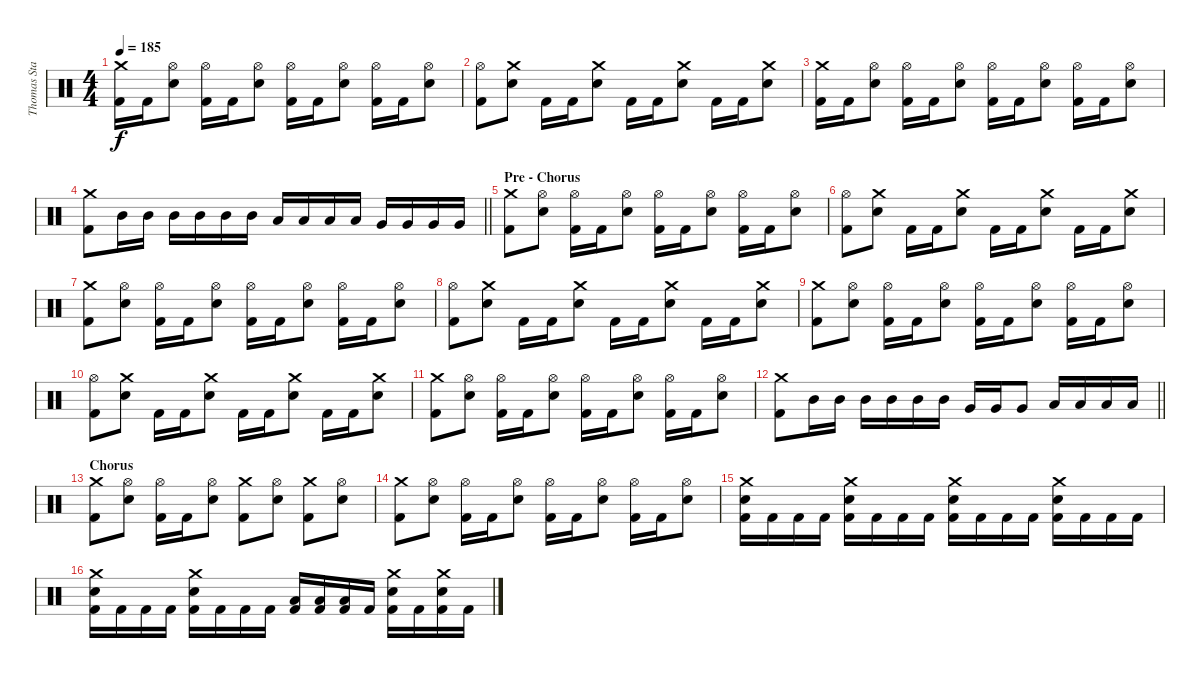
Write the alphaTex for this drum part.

\track ("Thomas Stauch" "Thomas Sta") {instrument percussion}
\staff {score}
\articulation defaults
\ts (4 4)
\tempo 185
\clef neutral
\ks c
("Crash medium (hit)" "Kick (hit) 2").16{dy f} "Kick (hit) 2".16 ("Hi-Hat (open)" "Electric Snare (hit)").8 ("Hi-Hat (open)" "Kick (hit) 2").16 "Kick (hit) 2".16 ("Hi-Hat (open)" "Electric Snare (hit)").8 ("Hi-Hat (open)" "Kick (hit) 2").16 "Kick (hit) 2".16 ("Hi-Hat (open)" "Electric Snare (hit)").8 ("Hi-Hat (open)" "Kick (hit) 2").16 "Kick (hit) 2".16 ("Hi-Hat (open)" "Electric Snare (hit)").8 |
("Hi-Hat (open)" "Kick (hit) 2").8 ("Crash medium (hit)" "Electric Snare (hit)").8 "Kick (hit) 2".16 "Kick (hit) 2".16 ("Crash medium (hit)" "Electric Snare (hit)").8 "Kick (hit) 2".16 "Kick (hit) 2".16 ("Crash medium (hit)" "Electric Snare (hit)").8 "Kick (hit) 2".16 "Kick (hit) 2".16 ("Crash medium (hit)" "Electric Snare (hit)").8 |
("Crash medium (hit)" "Kick (hit) 2").16 "Kick (hit) 2".16 ("Hi-Hat (open)" "Electric Snare (hit)").8 ("Hi-Hat (open)" "Kick (hit) 2").16 "Kick (hit) 2".16 ("Hi-Hat (open)" "Electric Snare (hit)").8 ("Hi-Hat (open)" "Kick (hit) 2").16 "Kick (hit) 2".16 ("Hi-Hat (open)" "Electric Snare (hit)").8 ("Hi-Hat (open)" "Kick (hit) 2").16 "Kick (hit) 2".16 ("Hi-Hat (open)" "Electric Snare (hit)").8 |
\barLineRight lightlight
("Crash medium (hit)" "Kick (hit) 2").8 "Mid Tom (hit)".16 "Mid Tom (hit)".16 "Mid Tom (hit)".16 "Mid Tom (hit)".16 "Mid Tom (hit)".16 "Mid Tom (hit)".16 "Low Tom (hit)".16 "Low Tom (hit)".16 "Low Tom (hit)".16 "Low Tom (hit)".16 "Very Low Tom (hit)".16 "Very Low Tom (hit)".16 "Very Low Tom (hit)".16 "Very Low Tom (hit)".16 |
\section ("" "Pre - Chorus")
("Crash medium (hit)" "Kick (hit) 2").8 ("Hi-Hat (open)" "Electric Snare (hit)").8 ("Hi-Hat (open)" "Kick (hit) 2").16 "Kick (hit) 2".16 ("Hi-Hat (open)" "Electric Snare (hit)").8 ("Hi-Hat (open)" "Kick (hit) 2").16 "Kick (hit) 2".16 ("Hi-Hat (open)" "Electric Snare (hit)").8 ("Hi-Hat (open)" "Kick (hit) 2").16 "Kick (hit) 2".16 ("Hi-Hat (open)" "Electric Snare (hit)").8 |
("Hi-Hat (open)" "Kick (hit) 2").8 ("Crash medium (hit)" "Electric Snare (hit)").8 "Kick (hit) 2".16 "Kick (hit) 2".16 ("Crash medium (hit)" "Electric Snare (hit)").8 "Kick (hit) 2".16 "Kick (hit) 2".16 ("Crash medium (hit)" "Electric Snare (hit)").8 "Kick (hit) 2".16 "Kick (hit) 2".16 ("Crash medium (hit)" "Electric Snare (hit)").8 |
("Crash medium (hit)" "Kick (hit) 2").8 ("Hi-Hat (open)" "Electric Snare (hit)").8 ("Hi-Hat (open)" "Kick (hit) 2").16 "Kick (hit) 2".16 ("Hi-Hat (open)" "Electric Snare (hit)").8 ("Hi-Hat (open)" "Kick (hit) 2").16 "Kick (hit) 2".16 ("Hi-Hat (open)" "Electric Snare (hit)").8 ("Hi-Hat (open)" "Kick (hit) 2").16 "Kick (hit) 2".16 ("Hi-Hat (open)" "Electric Snare (hit)").8 |
("Hi-Hat (open)" "Kick (hit) 2").8 ("Crash medium (hit)" "Electric Snare (hit)").8 "Kick (hit) 2".16 "Kick (hit) 2".16 ("Crash medium (hit)" "Electric Snare (hit)").8 "Kick (hit) 2".16 "Kick (hit) 2".16 ("Crash medium (hit)" "Electric Snare (hit)").8 "Kick (hit) 2".16 "Kick (hit) 2".16 ("Crash medium (hit)" "Electric Snare (hit)").8 |
("Crash medium (hit)" "Kick (hit) 2").8 ("Hi-Hat (open)" "Electric Snare (hit)").8 ("Hi-Hat (open)" "Kick (hit) 2").16 "Kick (hit) 2".16 ("Hi-Hat (open)" "Electric Snare (hit)").8 ("Hi-Hat (open)" "Kick (hit) 2").16 "Kick (hit) 2".16 ("Hi-Hat (open)" "Electric Snare (hit)").8 ("Hi-Hat (open)" "Kick (hit) 2").16 "Kick (hit) 2".16 ("Hi-Hat (open)" "Electric Snare (hit)").8 |
("Hi-Hat (open)" "Kick (hit) 2").8 ("Crash medium (hit)" "Electric Snare (hit)").8 "Kick (hit) 2".16 "Kick (hit) 2".16 ("Crash medium (hit)" "Electric Snare (hit)").8 "Kick (hit) 2".16 "Kick (hit) 2".16 ("Crash medium (hit)" "Electric Snare (hit)").8 "Kick (hit) 2".16 "Kick (hit) 2".16 ("Crash medium (hit)" "Electric Snare (hit)").8 |
("Crash medium (hit)" "Kick (hit) 2").8 ("Hi-Hat (open)" "Electric Snare (hit)").8 ("Hi-Hat (open)" "Kick (hit) 2").16 "Kick (hit) 2".16 ("Hi-Hat (open)" "Electric Snare (hit)").8 ("Hi-Hat (open)" "Kick (hit) 2").16 "Kick (hit) 2".16 ("Hi-Hat (open)" "Electric Snare (hit)").8 ("Hi-Hat (open)" "Kick (hit) 2").16 "Kick (hit) 2".16 ("Hi-Hat (open)" "Electric Snare (hit)").8 |
\barLineRight lightlight
("Crash medium (hit)" "Kick (hit) 2").8 "Mid Tom (hit)".16 "Mid Tom (hit)".16 "Mid Tom (hit)".16 "Mid Tom (hit)".16 "Mid Tom (hit)".16 "Mid Tom (hit)".16 "Very Low Tom (hit)".16 "Very Low Tom (hit)".16 "Very Low Tom (hit)".8 "Low Floor Tom (hit)".16 "Low Floor Tom (hit)".16 "Low Floor Tom (hit)".16 "Low Floor Tom (hit)".16 |
\section ("" "Chorus")
("Crash medium (hit)" "Kick (hit) 2").8 ("Hi-Hat (open)" "Electric Snare (hit)").8 ("Hi-Hat (open)" "Kick (hit) 2").16 "Kick (hit) 2".16 ("Hi-Hat (open)" "Electric Snare (hit)").8 ("Crash medium (hit)" "Kick (hit) 2").8 ("Hi-Hat (open)" "Electric Snare (hit)").8 ("Crash medium (hit)" "Kick (hit) 2").8 ("Hi-Hat (open)" "Electric Snare (hit)").8 |
("Crash medium (hit)" "Kick (hit) 2").8 ("Hi-Hat (open)" "Electric Snare (hit)").8 ("Hi-Hat (open)" "Kick (hit) 2").16 "Kick (hit) 2".16 ("Hi-Hat (open)" "Electric Snare (hit)").8 ("Hi-Hat (open)" "Kick (hit) 2").16 "Kick (hit) 2".16 ("Hi-Hat (open)" "Electric Snare (hit)").8 ("Hi-Hat (open)" "Kick (hit) 2").16 "Kick (hit) 2".16 ("Hi-Hat (open)" "Electric Snare (hit)").8 |
("Crash medium (hit)" "Electric Snare (hit)" "Kick (hit) 2").16 "Kick (hit) 2".16 "Kick (hit) 2".16 "Kick (hit) 2".16 ("Crash medium (hit)" "Electric Snare (hit)" "Kick (hit) 2").16 "Kick (hit) 2".16 "Kick (hit) 2".16 "Kick (hit) 2".16 ("Crash medium (hit)" "Electric Snare (hit)" "Kick (hit) 2").16 "Kick (hit) 2".16 "Kick (hit) 2".16 "Kick (hit) 2".16 ("Crash medium (hit)" "Electric Snare (hit)" "Kick (hit) 2").16 "Kick (hit) 2".16 "Kick (hit) 2".16 "Kick (hit) 2".16 |
("Crash medium (hit)" "Electric Snare (hit)" "Kick (hit) 2").16 "Kick (hit) 2".16 "Kick (hit) 2".16 "Kick (hit) 2".16 ("Crash medium (hit)" "Electric Snare (hit)" "Kick (hit) 2").16 "Kick (hit) 2".16 "Kick (hit) 2".16 "Kick (hit) 2".16 ("Low Tom (hit)" "Kick (hit) 2").16 ("Low Tom (hit)" "Kick (hit) 2").16 ("Low Tom (hit)" "Kick (hit) 2").16 "Kick (hit) 2".16 ("Crash medium (hit)" "Electric Snare (hit)" "Kick (hit) 2").16 "Kick (hit) 2".16 ("Crash medium (hit)" "Electric Snare (hit)" "Kick (hit) 2").16 "Kick (hit) 2".16
